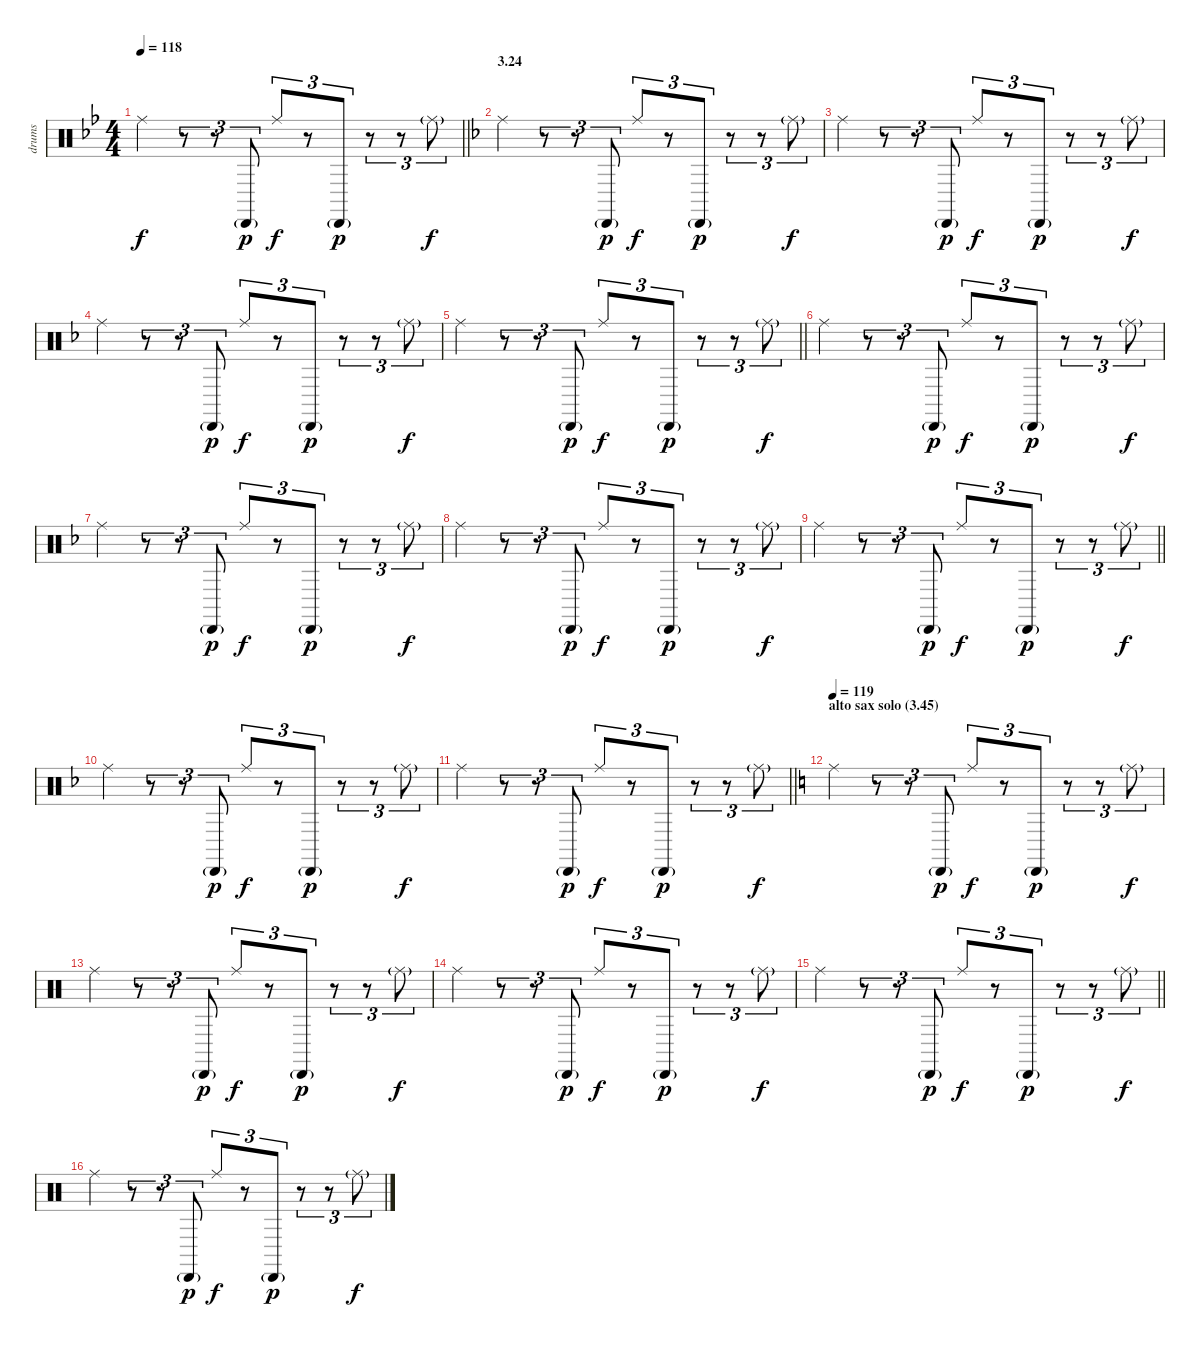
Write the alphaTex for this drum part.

\track ("drums" "drums") {instrument percussion}
\staff {score}
\articulation defaults
\ts (4 4)
\tempo 118
\clef neutral
\barLineRight lightlight
\ks bb "Ride (middle)".4{dy f}
r.8{tu (3 2)} r.8{tu (3 2)} "Cabasa (hit)"{g}.8{tu (3 2) dy p} "Ride (middle)".8{tu (3 2) dy f} r.8{tu (3 2)} "Cabasa (hit)"{g}.8{tu (3 2) dy p} r.8{tu (3 2)} r.8{tu (3 2)} "Ride (middle)"{g}.8{tu (3 2) dy f} |
\section ("" "3.24")
\ks f "Ride (middle)".4
r.8{tu (3 2)} r.8{tu (3 2)} "Cabasa (hit)"{g}.8{tu (3 2) dy p} "Ride (middle)".8{tu (3 2) dy f} r.8{tu (3 2)} "Cabasa (hit)"{g}.8{tu (3 2) dy p} r.8{tu (3 2)} r.8{tu (3 2)} "Ride (middle)"{g}.8{tu (3 2) dy f} |
"Ride (middle)".4 r.8{tu (3 2)} r.8{tu (3 2)} "Cabasa (hit)"{g}.8{tu (3 2) dy p} "Ride (middle)".8{tu (3 2) dy f} r.8{tu (3 2)} "Cabasa (hit)"{g}.8{tu (3 2) dy p} r.8{tu (3 2)} r.8{tu (3 2)} "Ride (middle)"{g}.8{tu (3 2) dy f} |
"Ride (middle)".4 r.8{tu (3 2)} r.8{tu (3 2)} "Cabasa (hit)"{g}.8{tu (3 2) dy p} "Ride (middle)".8{tu (3 2) dy f} r.8{tu (3 2)} "Cabasa (hit)"{g}.8{tu (3 2) dy p} r.8{tu (3 2)} r.8{tu (3 2)} "Ride (middle)"{g}.8{tu (3 2) dy f} |
\barLineRight lightlight "Ride (middle)".4
r.8{tu (3 2)} r.8{tu (3 2)} "Cabasa (hit)"{g}.8{tu (3 2) dy p} "Ride (middle)".8{tu (3 2) dy f} r.8{tu (3 2)} "Cabasa (hit)"{g}.8{tu (3 2) dy p} r.8{tu (3 2)} r.8{tu (3 2)} "Ride (middle)"{g}.8{tu (3 2) dy f} |
"Ride (middle)".4 r.8{tu (3 2)} r.8{tu (3 2)} "Cabasa (hit)"{g}.8{tu (3 2) dy p} "Ride (middle)".8{tu (3 2) dy f} r.8{tu (3 2)} "Cabasa (hit)"{g}.8{tu (3 2) dy p} r.8{tu (3 2)} r.8{tu (3 2)} "Ride (middle)"{g}.8{tu (3 2) dy f} |
"Ride (middle)".4 r.8{tu (3 2)} r.8{tu (3 2)} "Cabasa (hit)"{g}.8{tu (3 2) dy p} "Ride (middle)".8{tu (3 2) dy f} r.8{tu (3 2)} "Cabasa (hit)"{g}.8{tu (3 2) dy p} r.8{tu (3 2)} r.8{tu (3 2)} "Ride (middle)"{g}.8{tu (3 2) dy f} |
"Ride (middle)".4 r.8{tu (3 2)} r.8{tu (3 2)} "Cabasa (hit)"{g}.8{tu (3 2) dy p} "Ride (middle)".8{tu (3 2) dy f} r.8{tu (3 2)} "Cabasa (hit)"{g}.8{tu (3 2) dy p} r.8{tu (3 2)} r.8{tu (3 2)} "Ride (middle)"{g}.8{tu (3 2) dy f} |
\barLineRight lightlight "Ride (middle)".4
r.8{tu (3 2)} r.8{tu (3 2)} "Cabasa (hit)"{g}.8{tu (3 2) dy p} "Ride (middle)".8{tu (3 2) dy f} r.8{tu (3 2)} "Cabasa (hit)"{g}.8{tu (3 2) dy p} r.8{tu (3 2)} r.8{tu (3 2)} "Ride (middle)"{g}.8{tu (3 2) dy f} |
"Ride (middle)".4 r.8{tu (3 2)} r.8{tu (3 2)} "Cabasa (hit)"{g}.8{tu (3 2) dy p} "Ride (middle)".8{tu (3 2) dy f} r.8{tu (3 2)} "Cabasa (hit)"{g}.8{tu (3 2) dy p} r.8{tu (3 2)} r.8{tu (3 2)} "Ride (middle)"{g}.8{tu (3 2) dy f} |
\barLineRight lightlight "Ride (middle)".4
r.8{tu (3 2)} r.8{tu (3 2)} "Cabasa (hit)"{g}.8{tu (3 2) dy p} "Ride (middle)".8{tu (3 2) dy f} r.8{tu (3 2)} "Cabasa (hit)"{g}.8{tu (3 2) dy p} r.8{tu (3 2)} r.8{tu (3 2)} "Ride (middle)"{g}.8{tu (3 2) dy f} |
\section ("" "alto sax solo (3.45)")
\tempo 119
\ks c "Ride (middle)".4
r.8{tu (3 2)} r.8{tu (3 2)} "Cabasa (hit)"{g}.8{tu (3 2) dy p} "Ride (middle)".8{tu (3 2) dy f} r.8{tu (3 2)} "Cabasa (hit)"{g}.8{tu (3 2) dy p} r.8{tu (3 2)} r.8{tu (3 2)} "Ride (middle)"{g}.8{tu (3 2) dy f} |
"Ride (middle)".4 r.8{tu (3 2)} r.8{tu (3 2)} "Cabasa (hit)"{g}.8{tu (3 2) dy p} "Ride (middle)".8{tu (3 2) dy f} r.8{tu (3 2)} "Cabasa (hit)"{g}.8{tu (3 2) dy p} r.8{tu (3 2)} r.8{tu (3 2)} "Ride (middle)"{g}.8{tu (3 2) dy f} |
"Ride (middle)".4 r.8{tu (3 2)} r.8{tu (3 2)} "Cabasa (hit)"{g}.8{tu (3 2) dy p} "Ride (middle)".8{tu (3 2) dy f} r.8{tu (3 2)} "Cabasa (hit)"{g}.8{tu (3 2) dy p} r.8{tu (3 2)} r.8{tu (3 2)} "Ride (middle)"{g}.8{tu (3 2) dy f} |
\barLineRight lightlight "Ride (middle)".4
r.8{tu (3 2)} r.8{tu (3 2)} "Cabasa (hit)"{g}.8{tu (3 2) dy p} "Ride (middle)".8{tu (3 2) dy f} r.8{tu (3 2)} "Cabasa (hit)"{g}.8{tu (3 2) dy p} r.8{tu (3 2)} r.8{tu (3 2)} "Ride (middle)"{g}.8{tu (3 2) dy f} |
"Ride (middle)".4 r.8{tu (3 2)} r.8{tu (3 2)} "Cabasa (hit)"{g}.8{tu (3 2) dy p} "Ride (middle)".8{tu (3 2) dy f} r.8{tu (3 2)} "Cabasa (hit)"{g}.8{tu (3 2) dy p} r.8{tu (3 2)} r.8{tu (3 2)} "Ride (middle)"{g}.8{tu (3 2) dy f}
